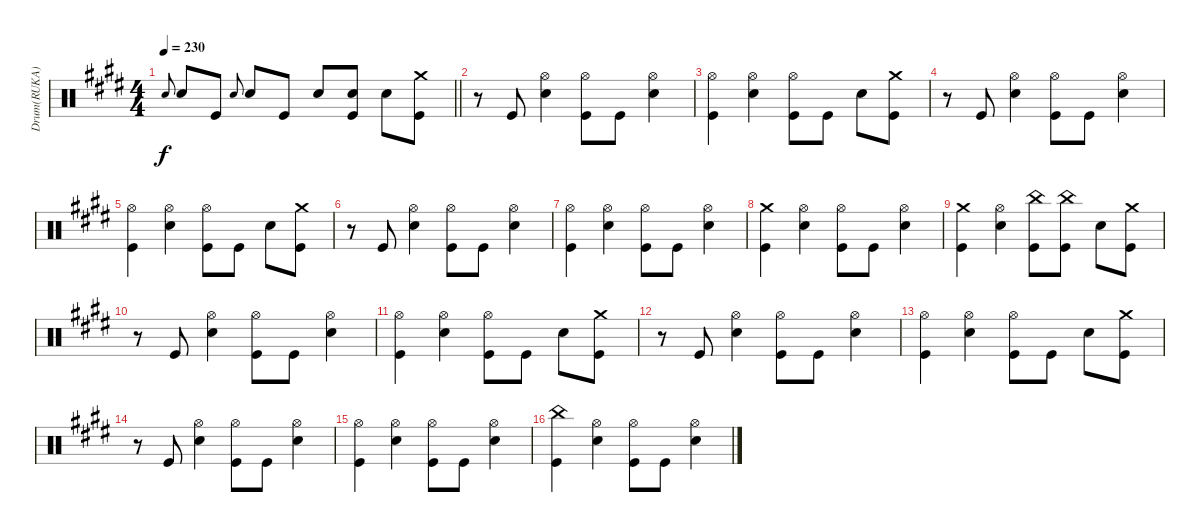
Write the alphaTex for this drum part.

\track ("Drum(RUKA)" "Drum(RUKA)") {instrument percussion}
\staff {score}
\articulation defaults
\ts (4 4)
\tempo 230
\clef neutral
\barLineRight lightlight
\ks e "Electric Snare (hit)".8{gr onbeat dy f} "Electric Snare (hit)".8 "Kick (hit)".8 "Electric Snare (hit)".8{gr onbeat} "Electric Snare (hit)".8 "Kick (hit)".8 "Electric Snare (hit)".8
("Electric Snare (hit)" "Kick (hit)").8 "Electric Snare (hit)".8 ("Crash medium (hit)" "Kick (hit)").8 |
r.8 "Kick (hit)".8 ("Hi-Hat (open)" "Electric Snare (hit)").4 ("Hi-Hat (open)" "Kick (hit)").8 "Kick (hit)".8 ("Hi-Hat (open)" "Electric Snare (hit)").4 |
("Hi-Hat (open)" "Kick (hit)").4 ("Hi-Hat (open)" "Electric Snare (hit)").4 ("Hi-Hat (open)" "Kick (hit)").8 "Kick (hit)".8 "Electric Snare (hit)".8 ("Crash medium (hit)" "Kick (hit)").8 |
r.8 "Kick (hit)".8 ("Hi-Hat (open)" "Electric Snare (hit)").4 ("Hi-Hat (open)" "Kick (hit)").8 "Kick (hit)".8 ("Hi-Hat (open)" "Electric Snare (hit)").4 |
("Hi-Hat (open)" "Kick (hit)").4 ("Hi-Hat (open)" "Electric Snare (hit)").4 ("Hi-Hat (open)" "Kick (hit)").8 "Kick (hit)".8 "Electric Snare (hit)".8 ("Crash medium (hit)" "Kick (hit)").8 |
r.8 "Kick (hit)".8 ("Hi-Hat (open)" "Electric Snare (hit)").4 ("Hi-Hat (open)" "Kick (hit)").8 "Kick (hit)".8 ("Hi-Hat (open)" "Electric Snare (hit)").4 |
("Hi-Hat (open)" "Kick (hit)").4 ("Hi-Hat (open)" "Electric Snare (hit)").4 ("Hi-Hat (open)" "Kick (hit)").8 "Kick (hit)".8 ("Hi-Hat (open)" "Electric Snare (hit)").4 |
("Crash medium (hit)" "Kick (hit)").4 ("Hi-Hat (open)" "Electric Snare (hit)").4 ("Hi-Hat (open)" "Kick (hit)").8 "Kick (hit)".8 ("Hi-Hat (open)" "Electric Snare (hit)").4 |
("Crash medium (hit)" "Kick (hit)").4 ("Hi-Hat (open)" "Electric Snare (hit)").4 ("China (hit)" "Kick (hit)").8 ("China (hit)" "Kick (hit)").8 "Electric Snare (hit)".8 ("Crash medium (hit)" "Kick (hit)").8 |
r.8 "Kick (hit)".8 ("Hi-Hat (open)" "Electric Snare (hit)").4 ("Hi-Hat (open)" "Kick (hit)").8 "Kick (hit)".8 ("Hi-Hat (open)" "Electric Snare (hit)").4 |
("Hi-Hat (open)" "Kick (hit)").4 ("Hi-Hat (open)" "Electric Snare (hit)").4 ("Hi-Hat (open)" "Kick (hit)").8 "Kick (hit)".8 "Electric Snare (hit)".8 ("Crash medium (hit)" "Kick (hit)").8 |
r.8 "Kick (hit)".8 ("Hi-Hat (open)" "Electric Snare (hit)").4 ("Hi-Hat (open)" "Kick (hit)").8 "Kick (hit)".8 ("Hi-Hat (open)" "Electric Snare (hit)").4 |
("Hi-Hat (open)" "Kick (hit)").4 ("Hi-Hat (open)" "Electric Snare (hit)").4 ("Hi-Hat (open)" "Kick (hit)").8 "Kick (hit)".8 "Electric Snare (hit)".8 ("Crash medium (hit)" "Kick (hit)").8 |
r.8 "Kick (hit)".8 ("Hi-Hat (open)" "Electric Snare (hit)").4 ("Hi-Hat (open)" "Kick (hit)").8 "Kick (hit)".8 ("Hi-Hat (open)" "Electric Snare (hit)").4 |
("Hi-Hat (open)" "Kick (hit)").4 ("Hi-Hat (open)" "Electric Snare (hit)").4 ("Hi-Hat (open)" "Kick (hit)").8 "Kick (hit)".8 ("Hi-Hat (open)" "Electric Snare (hit)").4 |
("China (hit)" "Kick (hit)").4 ("Hi-Hat (open)" "Electric Snare (hit)").4 ("Hi-Hat (open)" "Kick (hit)").8 "Kick (hit)".8 ("Hi-Hat (open)" "Electric Snare (hit)").4
